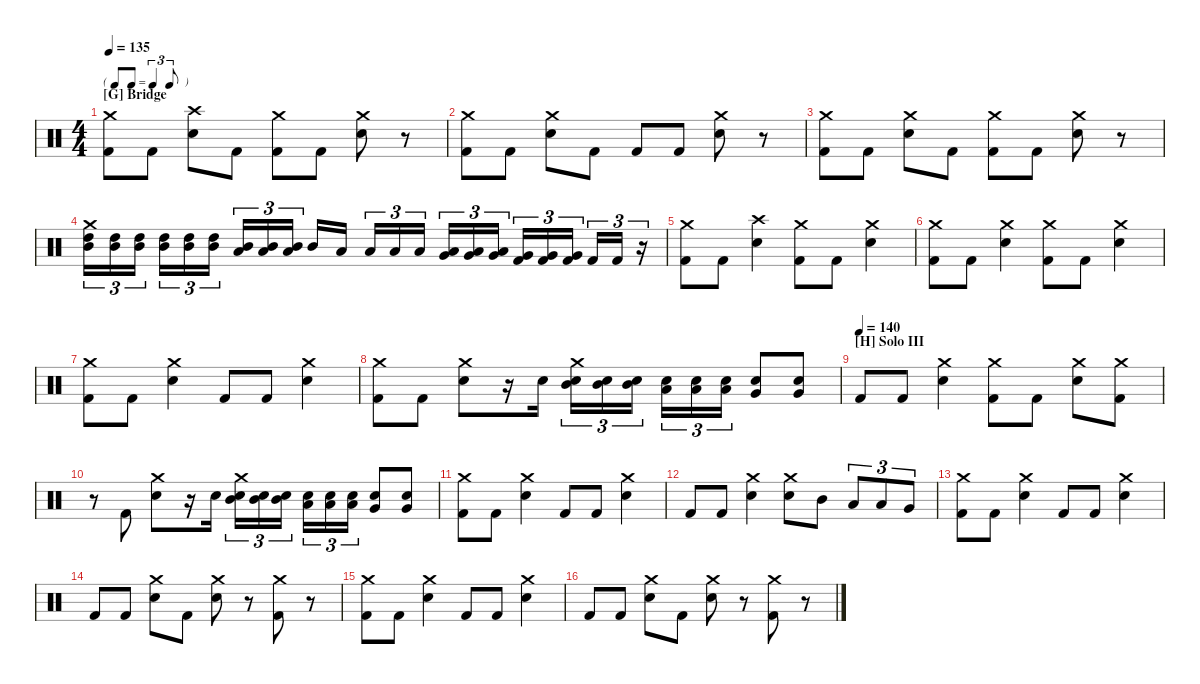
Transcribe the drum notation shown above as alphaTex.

\defaultSystemsLayout 4
\hideDynamics
\bracketExtendMode nobrackets
\singleTrackTrackNamePolicy hidden
\multiTrackTrackNamePolicy hidden
\firstSystemTrackNameMode fullname
\firstSystemTrackNameOrientation horizontal
\otherSystemsTrackNameOrientation horizontal
\track ("Drum" "Drums") {instrument percussion}
\staff {score}
\articulation defaults
\ts (4 4)
\tf triplet8th
\section ("G" "Bridge")
\scale
0.268041
\tempo 135
\accidentals auto
\clef neutral
\ottava regular
\simile none
\scale
0.169133
\ks c
("Kick (hit) 2" "Crash medium (hit)").8{dy f beam Down} "Kick (hit) 2".8{beam Down} ("Snare (hit) 2" "Crash high (hit)").8{beam Down} "Kick (hit) 2".8{beam Down} ("Kick (hit) 2" "Crash medium (hit)").8{beam Down} "Kick (hit) 2".8{beam Down} ("Snare (hit) 2" "Crash medium (hit)").8{beam Down} r.8{beam Down} |
\scale
0.346392
\scale
0.169133 ("Kick (hit) 2" "Crash medium (hit)").8{beam Down} "Kick (hit) 2".8{beam Down} ("Snare (hit) 2" "Crash medium (hit)").8{beam Down} "Kick (hit) 2".8{beam Down} "Kick (hit) 2".8{beam Up} "Kick (hit) 2".8{beam Up} ("Snare (hit) 2" "Crash medium (hit)").8{beam Down} r.8{beam Down} |
\scale
0.25567
\scale
0.169133 ("Kick (hit) 2" "Crash medium (hit)").8{beam Down} "Kick (hit) 2".8{beam Down} ("Snare (hit) 2" "Crash medium (hit)").8{beam Down} "Kick (hit) 2".8{beam Down} ("Kick (hit) 2" "Crash medium (hit)").8{beam Down} "Kick (hit) 2".8{beam Down} ("Snare (hit) 2" "Crash medium (hit)").8{beam Down} r.8{beam Down} |
\scale
0.129897
\scale
0.4926 ("Crash medium (hit)" "Mid Tom (hit)" "High Tom (hit)").16{tu (3 2) dy mf beam Down} ("Mid Tom (hit)" "High Tom (hit)").16{tu (3 2) beam Down} ("Mid Tom (hit)" "High Tom (hit)").16{tu (3 2) beam Down} ("Mid Tom (hit)" "High Tom (hit)").16{tu (3 2) beam Down} ("Mid Tom (hit)" "High Tom (hit)").16{tu (3 2) beam Down} ("Mid Tom (hit)" "High Tom (hit)").16{tu (3 2) beam Down} ("Mid Tom (hit)" "Low Tom (hit)").16{tu (3 2) beam Up} ("Mid Tom (hit)" "Low Tom (hit)").16{tu (3 2) beam Up} ("Mid Tom (hit)" "Low Tom (hit)").16{tu (3 2) beam Up} "Mid Tom (hit)".16{beam Up} "Low Tom (hit)".16{dy f beam Up} "Low Tom (hit)".16{tu (3 2) beam Up} "Low Tom (hit)".16{tu (3 2) beam Up} "Low Tom (hit)".16{tu (3 2) beam Up} ("Low Tom (hit)" "Very Low Tom (hit)").16{tu (3 2) dy mf beam Up} ("Very Low Tom (hit)" "Low Tom (hit)").16{tu (3 2) beam Up} ("Very Low Tom (hit)" "Low Tom (hit)").16{tu (3 2) beam Up} ("Very Low Tom (hit)" "Kick (hit) 2").16{tu (3 2) beam Up} ("Very Low Tom (hit)" "Kick (hit) 2").16{tu (3 2) beam Up} ("Very Low Tom (hit)" "Kick (hit) 2").16{tu (3 2) beam Up} "Kick (hit) 2".16{tu (3 2) beam Up} "Kick (hit) 2".16{tu (3 2) beam Up} r.16{tu (3 2) beam Up} |
\scale
0.220339
\scale
0.18543 ("Kick (hit) 2" "Crash medium (hit)").8{dy f beam Down} "Kick (hit) 2".8{beam Down} ("Snare (hit) 2" "Crash high (hit)").4{beam Down} ("Kick (hit) 2" "Crash medium (hit)").8{beam Down} "Kick (hit) 2".8{beam Down} ("Snare (hit) 2" "Crash medium (hit)").4{beam Down} |
\scale
0.284746
\scale
0.18543 ("Kick (hit) 2" "Crash medium (hit)").8{beam Down} "Kick (hit) 2".8{beam Down} ("Snare (hit) 2" "Crash medium (hit)").4{beam Down} ("Kick (hit) 2" "Crash medium (hit)").8{beam Down} "Kick (hit) 2".8{beam Down} ("Snare (hit) 2" "Crash medium (hit)").4{beam Down} |
\scale
0.210169
\scale
0.18543 ("Kick (hit) 2" "Crash medium (hit)").8{beam Down} "Kick (hit) 2".8{beam Down} ("Snare (hit) 2" "Crash medium (hit)").4{beam Down} "Kick (hit) 2".8{beam Up} "Kick (hit) 2".8{beam Up} ("Snare (hit) 2" "Crash medium (hit)").4{beam Down} |
\scale
0.284746
\scale
0.443709 ("Kick (hit) 2" "Crash medium (hit)").8{beam Down} "Kick (hit) 2".8{beam Down} ("Snare (hit) 2" "Crash medium (hit)").8{beam Down} r.16{beam Down} "Snare (hit) 2".16{beam Down} ("Snare (hit) 2" "Crash medium (hit)" "Mid Tom (hit)").16{tu (3 2) beam Down} ("Snare (hit) 2" "Mid Tom (hit)").16{tu (3 2) beam Down} ("Snare (hit) 2" "Mid Tom (hit)").16{tu (3 2) beam Down} ("Snare (hit) 2" "Low Tom (hit)").16{tu (3 2) beam Down} ("Snare (hit) 2" "Low Tom (hit)").16{tu (3 2) beam Down} ("Snare (hit) 2" "Low Tom (hit)").16{tu (3 2) beam Down} ("Snare (hit) 2" "Very Low Tom (hit)").8{beam Up} ("Snare (hit) 2" "Very Low Tom (hit)").8{beam Up} |
\section ("H" "Solo III")
\scale
0.24
\tempo 140
\scale
0.184275 "Kick (hit) 2".8{beam Up} "Kick (hit) 2".8{beam Up} ("Snare (hit) 2" "Crash medium (hit)").4{beam Down} ("Kick (hit) 2" "Crash medium (hit)").8{beam Down} "Kick (hit) 2".8{beam Down} ("Snare (hit) 2" "Crash medium (hit)").8{beam Down} ("Kick (hit) 2" "Crash medium (hit)").8{beam Down} |
\scale
0.24
\scale
0.411548 r.8{beam Down} "Kick (hit) 2".8{beam Up} ("Snare (hit) 2" "Crash medium (hit)").8{beam Down} r.16{beam Down} "Snare (hit) 2".16{beam Down} ("Snare (hit) 2" "Crash medium (hit)" "Mid Tom (hit)").16{tu (3 2) beam Down} ("Snare (hit) 2" "Mid Tom (hit)").16{tu (3 2) beam Down} ("Snare (hit) 2" "Mid Tom (hit)").16{tu (3 2) beam Down} ("Snare (hit) 2" "Low Tom (hit)").16{tu (3 2) beam Down} ("Snare (hit) 2" "Low Tom (hit)").16{tu (3 2) beam Down} ("Snare (hit) 2" "Low Tom (hit)").16{tu (3 2) beam Down} ("Snare (hit) 2" "Very Low Tom (hit)").8{beam Up} ("Snare (hit) 2" "Very Low Tom (hit)").8{beam Up} |
\scale
0.177143
\scale
0.17199 ("Kick (hit) 2" "Crash medium (hit)").8{beam Down} "Kick (hit) 2".8{beam Down} ("Snare (hit) 2" "Crash medium (hit)").4{beam Down} "Kick (hit) 2".8{beam Up} "Kick (hit) 2".8{beam Up} ("Snare (hit) 2" "Crash medium (hit)").4{beam Down} |
\scale
0.342857
\scale
0.232187 "Kick (hit) 2".8{beam Up} "Kick (hit) 2".8{beam Up} ("Snare (hit) 2" "Crash medium (hit)").4{beam Down} ("Snare (hit) 2" "Crash medium (hit)").8{beam Down} "Mid Tom (hit)".8{beam Down} "Low Tom (hit)".8{tu (3 2) beam Up} "Low Tom (hit)".8{tu (3 2) beam Up} "Very Low Tom (hit)".8{tu (3 2) beam Up} |
\scale
0.189189
\scale
0.233333 ("Kick (hit) 2" "Crash medium (hit)").8{beam Down} "Kick (hit) 2".8{beam Down} ("Snare (hit) 2" "Crash medium (hit)").4{beam Down} "Kick (hit) 2".8{beam Up} "Kick (hit) 2".8{beam Up} ("Snare (hit) 2" "Crash medium (hit)").4{beam Down} |
\scale
0.27027
\scale
0.266667 "Kick (hit) 2".8{beam Up} "Kick (hit) 2".8{beam Up} ("Snare (hit) 2" "Crash medium (hit)").8{beam Down} "Kick (hit) 2".8{beam Down} ("Snare (hit) 2" "Crash medium (hit)").8{beam Down} r.8{beam Down} ("Kick (hit) 2" "Crash medium (hit)").8{beam Down} r.8{beam Down} |
\scale
0.27027
\scale
0.233333 ("Kick (hit) 2" "Crash medium (hit)").8{beam Down} "Kick (hit) 2".8{beam Down} ("Snare (hit) 2" "Crash medium (hit)").4{beam Down} "Kick (hit) 2".8{beam Up} "Kick (hit) 2".8{beam Up} ("Snare (hit) 2" "Crash medium (hit)").4{beam Down} |
\scale
0.27027
\scale
0.266667 "Kick (hit) 2".8{beam Up} "Kick (hit) 2".8{beam Up} ("Snare (hit) 2" "Crash medium (hit)").8{beam Down} "Kick (hit) 2".8{beam Down} ("Snare (hit) 2" "Crash medium (hit)").8{beam Down} r.8{beam Down} ("Kick (hit) 2" "Crash medium (hit)").8{beam Down} r.8{beam Down}
